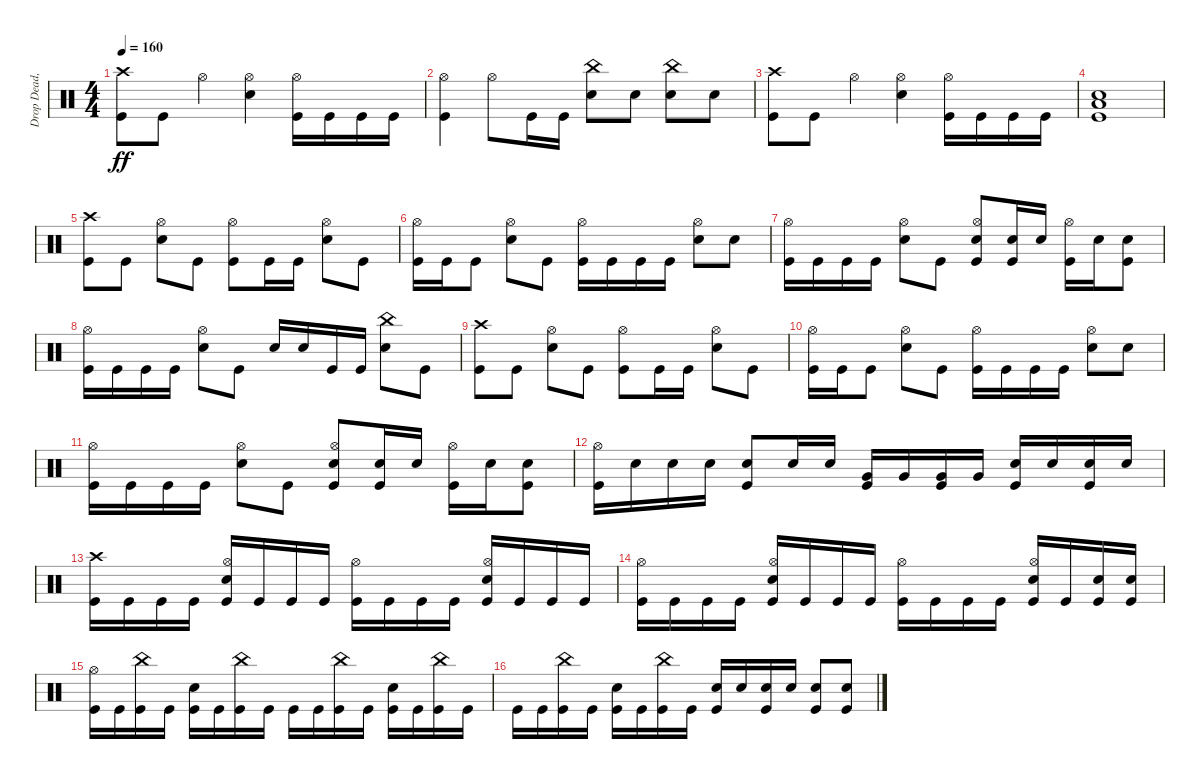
\track ("Drop Dead, Johnny" "Drop Dead,") {instrument percussion}
\staff {score}
\articulation defaults
\ts (4 4)
\tempo 160
\clef neutral
\ks c
("Crash high (hit)" "Kick (hit)").8{dy ff} "Kick (hit)".8 "Hi-Hat (open)".4 ("Hi-Hat (open)" "Electric Snare (hit)").4 ("Hi-Hat (open)" "Kick (hit)").16 "Kick (hit)".16 "Kick (hit)".16 "Kick (hit)".16 |
("Hi-Hat (open)" "Kick (hit)").4 "Hi-Hat (open)".8 "Kick (hit)".16 "Kick (hit)".16 ("China (hit)" "Electric Snare (hit)").8 "Electric Snare (hit)".8 ("China (hit)" "Electric Snare (hit)").8 "Electric Snare (hit)".8 |
("Crash high (hit)" "Kick (hit)").8 "Kick (hit)".8 "Hi-Hat (open)".4 ("Hi-Hat (open)" "Electric Snare (hit)").4 ("Hi-Hat (open)" "Kick (hit)").16 "Kick (hit)".16 "Kick (hit)".16 "Kick (hit)".16 |
("Low Floor Tom (hit)" "Electric Snare (hit)" "Kick (hit)").1 |
("Crash high (hit)" "Kick (hit)").8 "Kick (hit)".8 ("Hi-Hat (open)" "Electric Snare (hit)").8 "Kick (hit)".8 ("Hi-Hat (open)" "Kick (hit)").8 "Kick (hit)".16 "Kick (hit)".16 ("Hi-Hat (open)" "Electric Snare (hit)").8 "Kick (hit)".8 |
("Hi-Hat (open)" "Kick (hit)").16 "Kick (hit)".16 "Kick (hit)".8 ("Hi-Hat (open)" "Electric Snare (hit)").8 "Kick (hit)".8 ("Hi-Hat (open)" "Kick (hit)").16 "Kick (hit)".16 "Kick (hit)".16 "Kick (hit)".16 ("Hi-Hat (open)" "Electric Snare (hit)").8 "Electric Snare (hit)".8 |
("Hi-Hat (open)" "Kick (hit)").16 "Kick (hit)".16 "Kick (hit)".16 "Kick (hit)".16 ("Hi-Hat (open)" "Electric Snare (hit)").8 "Kick (hit)".8 ("Hi-Hat (open)" "Electric Snare (hit)" "Kick (hit)").8 ("Electric Snare (hit)" "Kick (hit)").16 "Electric Snare (hit)".16 ("Hi-Hat (open)" "Kick (hit)").16 "Electric Snare (hit)".16 ("Electric Snare (hit)" "Kick (hit)").8 |
("Hi-Hat (open)" "Kick (hit)").16 "Kick (hit)".16 "Kick (hit)".16 "Kick (hit)".16 ("Hi-Hat (open)" "Electric Snare (hit)").8 "Kick (hit)".8 "Electric Snare (hit)".16 "Electric Snare (hit)".16 "Kick (hit)".16 "Kick (hit)".16 ("China (hit)" "Electric Snare (hit)").8 "Kick (hit)".8 |
("Crash high (hit)" "Kick (hit)").8 "Kick (hit)".8 ("Hi-Hat (open)" "Electric Snare (hit)").8 "Kick (hit)".8 ("Hi-Hat (open)" "Kick (hit)").8 "Kick (hit)".16 "Kick (hit)".16 ("Hi-Hat (open)" "Electric Snare (hit)").8 "Kick (hit)".8 |
("Hi-Hat (open)" "Kick (hit)").16 "Kick (hit)".16 "Kick (hit)".8 ("Hi-Hat (open)" "Electric Snare (hit)").8 "Kick (hit)".8 ("Hi-Hat (open)" "Kick (hit)").16 "Kick (hit)".16 "Kick (hit)".16 "Kick (hit)".16 ("Hi-Hat (open)" "Electric Snare (hit)").8 "Electric Snare (hit)".8 |
("Hi-Hat (open)" "Kick (hit)").16 "Kick (hit)".16 "Kick (hit)".16 "Kick (hit)".16 ("Hi-Hat (open)" "Electric Snare (hit)").8 "Kick (hit)".8 ("Hi-Hat (open)" "Electric Snare (hit)" "Kick (hit)").8 ("Electric Snare (hit)" "Kick (hit)").16 "Electric Snare (hit)".16 ("Hi-Hat (open)" "Kick (hit)").16 "Electric Snare (hit)".16 ("Electric Snare (hit)" "Kick (hit)").8 |
("Hi-Hat (open)" "Kick (hit)").16 "Electric Snare (hit)".16 "Electric Snare (hit)".16 "Electric Snare (hit)".16 ("Electric Snare (hit)" "Kick (hit)").8 "Electric Snare (hit)".16 "Electric Snare (hit)".16 ("Very Low Tom (hit)" "Kick (hit)").16 "Very Low Tom (hit)".16 ("Very Low Tom (hit)" "Kick (hit)").16 "Very Low Tom (hit)".16 ("Electric Snare (hit)" "Kick (hit)").16 "Electric Snare (hit)".16 ("Electric Snare (hit)" "Kick (hit)").16 "Electric Snare (hit)".16 |
("Crash high (hit)" "Kick (hit)").16 "Kick (hit)".16 "Kick (hit)".16 "Kick (hit)".16 ("Hi-Hat (open)" "Electric Snare (hit)" "Kick (hit)").16 "Kick (hit)".16 "Kick (hit)".16 "Kick (hit)".16 ("Hi-Hat (open)" "Kick (hit)").16 "Kick (hit)".16 "Kick (hit)".16 "Kick (hit)".16 ("Hi-Hat (open)" "Electric Snare (hit)" "Kick (hit)").16 "Kick (hit)".16 "Kick (hit)".16 "Kick (hit)".16 |
("Hi-Hat (open)" "Kick (hit)").16 "Kick (hit)".16 "Kick (hit)".16 "Kick (hit)".16 ("Hi-Hat (open)" "Electric Snare (hit)" "Kick (hit)").16 "Kick (hit)".16 "Kick (hit)".16 "Kick (hit)".16 ("Hi-Hat (open)" "Kick (hit)").16 "Kick (hit)".16 "Kick (hit)".16 "Kick (hit)".16 ("Hi-Hat (open)" "Electric Snare (hit)" "Kick (hit)").16 "Kick (hit)".16 ("Electric Snare (hit)" "Kick (hit)").16 ("Electric Snare (hit)" "Kick (hit)").16 |
("Hi-Hat (open)" "Kick (hit)").16 "Kick (hit)".16 ("China (hit)" "Kick (hit)").16 "Kick (hit)".16 ("Electric Snare (hit)" "Kick (hit)").16 "Kick (hit)".16 ("China (hit)" "Kick (hit)").16 "Kick (hit)".16 "Kick (hit)".16 "Kick (hit)".16 ("China (hit)" "Kick (hit)").16 "Kick (hit)".16 ("Electric Snare (hit)" "Kick (hit)").16 "Kick (hit)".16 ("China (hit)" "Kick (hit)").16 "Kick (hit)".16 |
"Kick (hit)".16 "Kick (hit)".16 ("China (hit)" "Kick (hit)").16 "Kick (hit)".16 ("Electric Snare (hit)" "Kick (hit)").16 "Kick (hit)".16 ("China (hit)" "Kick (hit)").16 "Kick (hit)".16 ("Electric Snare (hit)" "Kick (hit)").16 "Electric Snare (hit)".16 ("Electric Snare (hit)" "Kick (hit)").16 "Electric Snare (hit)".16 ("Electric Snare (hit)" "Kick (hit)").8 ("Electric Snare (hit)" "Kick (hit)").8
